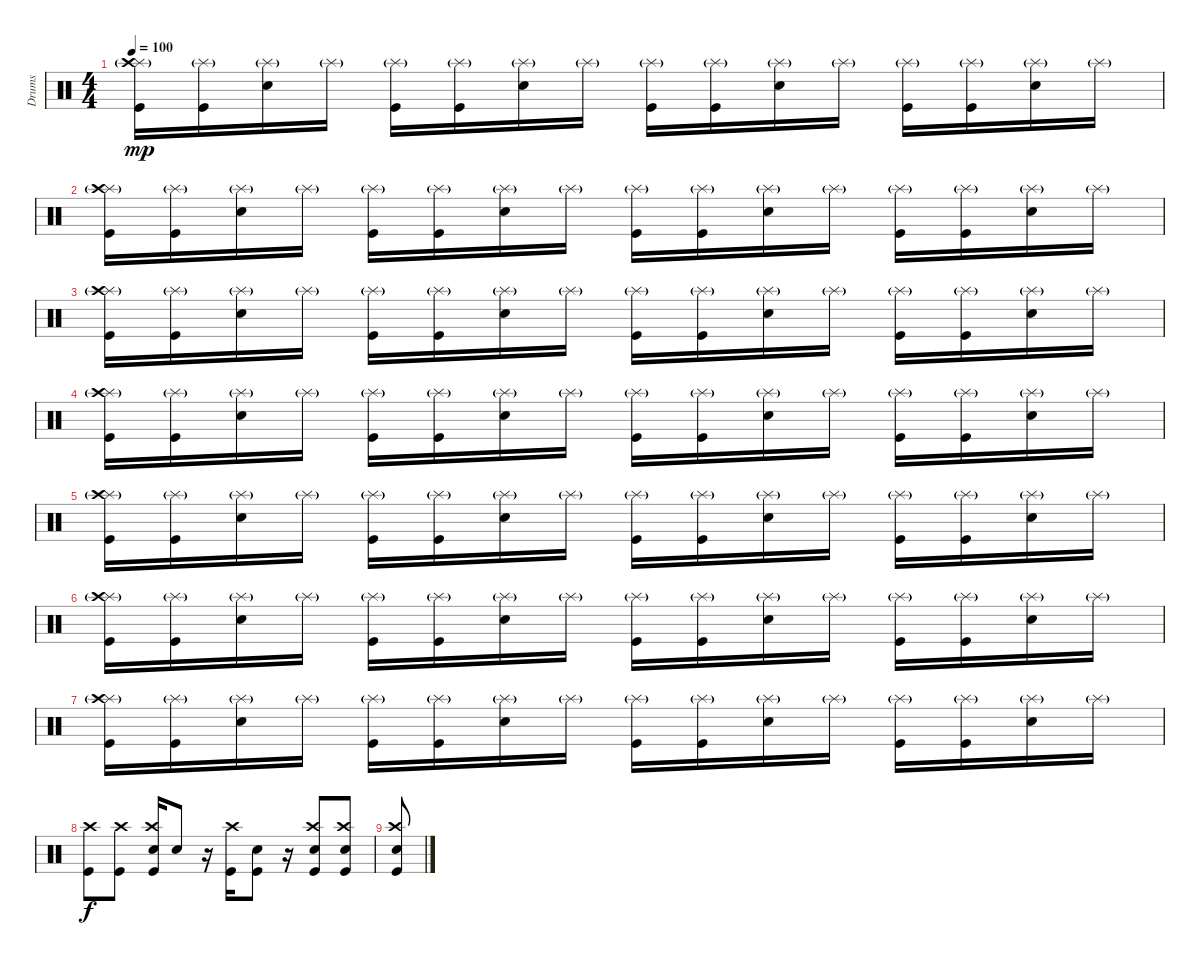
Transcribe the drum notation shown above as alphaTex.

\track ("Drums" "Drums") {instrument percussion}
\staff {score}
\articulation defaults
\ts (4 4)
\tempo 100
\clef neutral
\ks c
("Splash (hit)"{g} "Kick (hit)" "Crash high (hit)").16{dy mp} ("Splash (hit)"{g} "Kick (hit)").16 ("Splash (hit)"{g} "Electric Snare (hit)").16 "Splash (hit)"{g}.16 ("Splash (hit)"{g} "Kick (hit)").16 ("Splash (hit)"{g} "Kick (hit)").16 ("Splash (hit)"{g} "Electric Snare (hit)").16 "Splash (hit)"{g}.16 ("Splash (hit)"{g} "Kick (hit)").16 ("Splash (hit)"{g} "Kick (hit)").16 ("Splash (hit)"{g} "Electric Snare (hit)").16 "Splash (hit)"{g}.16 ("Splash (hit)"{g} "Kick (hit)").16 ("Splash (hit)"{g} "Kick (hit)").16 ("Splash (hit)"{g} "Electric Snare (hit)").16 "Splash (hit)"{g}.16 |
("Splash (hit)"{g} "Kick (hit)" "Crash high (hit)").16 ("Splash (hit)"{g} "Kick (hit)").16 ("Splash (hit)"{g} "Electric Snare (hit)").16 "Splash (hit)"{g}.16 ("Splash (hit)"{g} "Kick (hit)").16 ("Splash (hit)"{g} "Kick (hit)").16 ("Splash (hit)"{g} "Electric Snare (hit)").16 "Splash (hit)"{g}.16 ("Splash (hit)"{g} "Kick (hit)").16 ("Splash (hit)"{g} "Kick (hit)").16 ("Splash (hit)"{g} "Electric Snare (hit)").16 "Splash (hit)"{g}.16 ("Splash (hit)"{g} "Kick (hit)").16 ("Splash (hit)"{g} "Kick (hit)").16 ("Splash (hit)"{g} "Electric Snare (hit)").16 "Splash (hit)"{g}.16 |
("Splash (hit)"{g} "Kick (hit)" "Crash high (hit)").16 ("Splash (hit)"{g} "Kick (hit)").16 ("Splash (hit)"{g} "Electric Snare (hit)").16 "Splash (hit)"{g}.16 ("Splash (hit)"{g} "Kick (hit)").16 ("Splash (hit)"{g} "Kick (hit)").16 ("Splash (hit)"{g} "Electric Snare (hit)").16 "Splash (hit)"{g}.16 ("Splash (hit)"{g} "Kick (hit)").16 ("Splash (hit)"{g} "Kick (hit)").16 ("Splash (hit)"{g} "Electric Snare (hit)").16 "Splash (hit)"{g}.16 ("Splash (hit)"{g} "Kick (hit)").16 ("Splash (hit)"{g} "Kick (hit)").16 ("Splash (hit)"{g} "Electric Snare (hit)").16 "Splash (hit)"{g}.16 |
("Splash (hit)"{g} "Kick (hit)" "Crash high (hit)").16 ("Splash (hit)"{g} "Kick (hit)").16 ("Splash (hit)"{g} "Electric Snare (hit)").16 "Splash (hit)"{g}.16 ("Splash (hit)"{g} "Kick (hit)").16 ("Splash (hit)"{g} "Kick (hit)").16 ("Splash (hit)"{g} "Electric Snare (hit)").16 "Splash (hit)"{g}.16 ("Splash (hit)"{g} "Kick (hit)").16 ("Splash (hit)"{g} "Kick (hit)").16 ("Splash (hit)"{g} "Electric Snare (hit)").16 "Splash (hit)"{g}.16 ("Splash (hit)"{g} "Kick (hit)").16 ("Splash (hit)"{g} "Kick (hit)").16 ("Splash (hit)"{g} "Electric Snare (hit)").16 "Splash (hit)"{g}.16 |
("Splash (hit)"{g} "Kick (hit)" "Crash high (hit)").16 ("Splash (hit)"{g} "Kick (hit)").16 ("Splash (hit)"{g} "Electric Snare (hit)").16 "Splash (hit)"{g}.16 ("Splash (hit)"{g} "Kick (hit)").16 ("Splash (hit)"{g} "Kick (hit)").16 ("Splash (hit)"{g} "Electric Snare (hit)").16 "Splash (hit)"{g}.16 ("Splash (hit)"{g} "Kick (hit)").16 ("Splash (hit)"{g} "Kick (hit)").16 ("Splash (hit)"{g} "Electric Snare (hit)").16 "Splash (hit)"{g}.16 ("Splash (hit)"{g} "Kick (hit)").16 ("Splash (hit)"{g} "Kick (hit)").16 ("Splash (hit)"{g} "Electric Snare (hit)").16 "Splash (hit)"{g}.16 |
("Splash (hit)"{g} "Kick (hit)" "Crash high (hit)").16 ("Splash (hit)"{g} "Kick (hit)").16 ("Splash (hit)"{g} "Electric Snare (hit)").16 "Splash (hit)"{g}.16 ("Splash (hit)"{g} "Kick (hit)").16 ("Splash (hit)"{g} "Kick (hit)").16 ("Splash (hit)"{g} "Electric Snare (hit)").16 "Splash (hit)"{g}.16 ("Splash (hit)"{g} "Kick (hit)").16 ("Splash (hit)"{g} "Kick (hit)").16 ("Splash (hit)"{g} "Electric Snare (hit)").16 "Splash (hit)"{g}.16 ("Splash (hit)"{g} "Kick (hit)").16 ("Splash (hit)"{g} "Kick (hit)").16 ("Splash (hit)"{g} "Electric Snare (hit)").16 "Splash (hit)"{g}.16 |
("Splash (hit)"{g} "Kick (hit)" "Crash high (hit)").16 ("Splash (hit)"{g} "Kick (hit)").16 ("Splash (hit)"{g} "Electric Snare (hit)").16 "Splash (hit)"{g}.16 ("Splash (hit)"{g} "Kick (hit)").16 ("Splash (hit)"{g} "Kick (hit)").16 ("Splash (hit)"{g} "Electric Snare (hit)").16 "Splash (hit)"{g}.16 ("Splash (hit)"{g} "Kick (hit)").16 ("Splash (hit)"{g} "Kick (hit)").16 ("Splash (hit)"{g} "Electric Snare (hit)").16 "Splash (hit)"{g}.16 ("Splash (hit)"{g} "Kick (hit)").16 ("Splash (hit)"{g} "Kick (hit)").16 ("Splash (hit)"{g} "Electric Snare (hit)").16 "Splash (hit)"{g}.16 |
("Crash high (hit)" "Kick (hit)").8{dy f} ("Kick (hit)" "Crash high (hit)").8 ("Crash high (hit)" "Kick (hit)" "Electric Snare (hit)").16 "Electric Snare (hit)".8 r.16 ("Kick (hit)" "Crash high (hit)").16 ("Electric Snare (hit)" "Kick (hit)").8 r.16 ("Electric Snare (hit)" "Kick (hit)" "Crash high (hit)").8 ("Electric Snare (hit)" "Kick (hit)" "Crash high (hit)").8 |
("Crash high (hit)" "Electric Snare (hit)" "Kick (hit)").8
